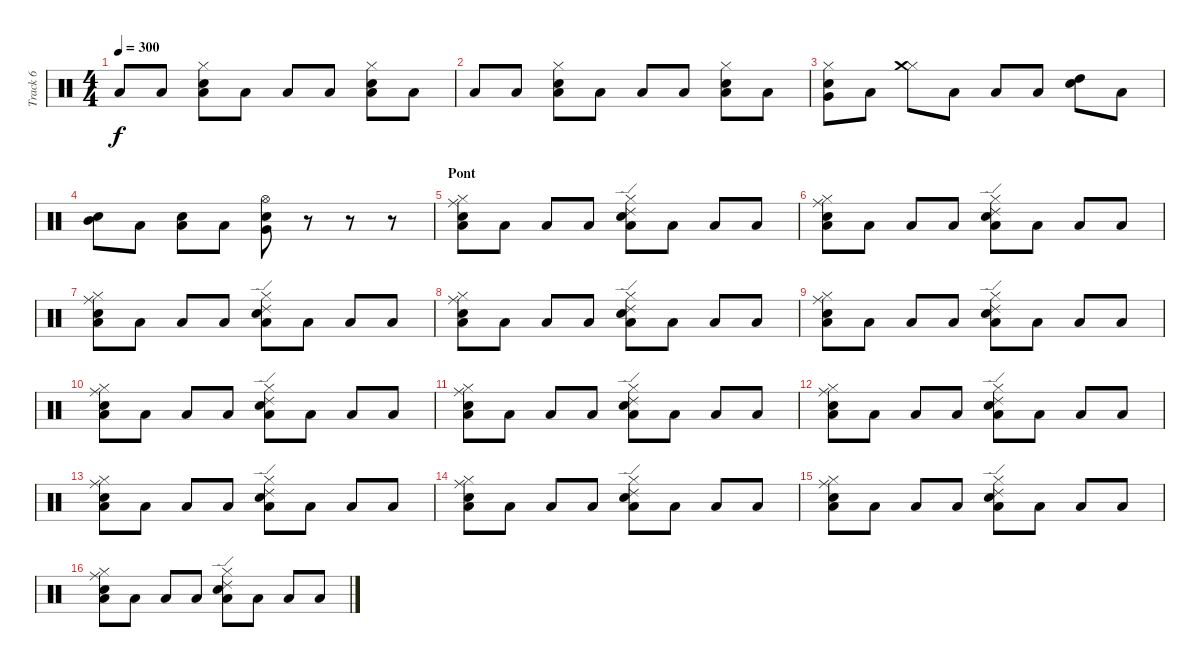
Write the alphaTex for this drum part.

\track ("Track 6" "Track 6") {instrument percussion}
\staff {score}
\articulation defaults
\ts (4 4)
\tempo 300
\clef neutral
\ks c "Low Floor Tom (hit)".8{dy f} "Low Floor Tom (hit)".8
("Electric Snare (hit)" "Low Tom (hit)" "Hi-Hat (closed)").8 "Low Floor Tom (hit)".8 "Low Floor Tom (hit)".8 "Low Floor Tom (hit)".8 ("Electric Snare (hit)" "Low Tom (hit)" "Hi-Hat (closed)").8 "Low Floor Tom (hit)".8 |
"Low Floor Tom (hit)".8 "Low Floor Tom (hit)".8 ("Electric Snare (hit)" "Low Tom (hit)" "Hi-Hat (closed)").8 "Low Floor Tom (hit)".8 "Low Floor Tom (hit)".8 "Low Floor Tom (hit)".8 ("Electric Snare (hit)" "Low Tom (hit)" "Hi-Hat (closed)").8 "Low Floor Tom (hit)".8 |
("Snare (hit) 2" "Very Low Tom (hit)" "Hi-Hat (closed)").8 "Low Floor Tom (hit)".8 ("Hi-Hat (closed)" "Crash medium (hit)").8 "Low Floor Tom (hit)".8 "Low Floor Tom (hit)".8 "Low Floor Tom (hit)".8 ("High Tom (hit)" "Snare (hit) 2").8 "Low Floor Tom (hit)".8 |
("Mid Tom (hit)" "Snare (hit) 2").8 "Low Floor Tom (hit)".8 ("Low Tom (hit)" "Snare (hit) 2").8 "Low Floor Tom (hit)".8 ("Very Low Tom (hit)" "Snare (hit) 2" "Hi-Hat (open)").8 r.8 r.8 r.8 |
\section ("" "Pont")
("Snare (hit) 2" "Low Tom (hit)" "Hi-Hat (closed)" "Ride (middle)").8 "Low Floor Tom (hit)".8 "Low Floor Tom (hit)".8 "Low Floor Tom (hit)".8 ("Electric Snare (hit)" "Low Tom (hit)" "Hi-Hat (closed)" "Ride (edge) 2").8 "Low Floor Tom (hit)".8 "Low Floor Tom (hit)".8 "Low Floor Tom (hit)".8 |
("Snare (hit) 2" "Low Tom (hit)" "Hi-Hat (closed)" "Ride (middle)").8 "Low Floor Tom (hit)".8 "Low Floor Tom (hit)".8 "Low Floor Tom (hit)".8 ("Electric Snare (hit)" "Low Tom (hit)" "Hi-Hat (closed)" "Ride (edge) 2").8 "Low Floor Tom (hit)".8 "Low Floor Tom (hit)".8 "Low Floor Tom (hit)".8 |
("Snare (hit) 2" "Low Tom (hit)" "Hi-Hat (closed)" "Ride (middle)").8 "Low Floor Tom (hit)".8 "Low Floor Tom (hit)".8 "Low Floor Tom (hit)".8 ("Electric Snare (hit)" "Low Tom (hit)" "Hi-Hat (closed)" "Ride (edge) 2").8 "Low Floor Tom (hit)".8 "Low Floor Tom (hit)".8 "Low Floor Tom (hit)".8 |
("Snare (hit) 2" "Low Tom (hit)" "Hi-Hat (closed)" "Ride (middle)").8 "Low Floor Tom (hit)".8 "Low Floor Tom (hit)".8 "Low Floor Tom (hit)".8 ("Electric Snare (hit)" "Low Tom (hit)" "Hi-Hat (closed)" "Ride (edge) 2").8 "Low Floor Tom (hit)".8 "Low Floor Tom (hit)".8 "Low Floor Tom (hit)".8 |
("Snare (hit) 2" "Low Tom (hit)" "Hi-Hat (closed)" "Ride (middle)").8 "Low Floor Tom (hit)".8 "Low Floor Tom (hit)".8 "Low Floor Tom (hit)".8 ("Electric Snare (hit)" "Low Tom (hit)" "Hi-Hat (closed)" "Ride (edge) 2").8 "Low Floor Tom (hit)".8 "Low Floor Tom (hit)".8 "Low Floor Tom (hit)".8 |
("Snare (hit) 2" "Low Tom (hit)" "Hi-Hat (closed)" "Ride (middle)").8 "Low Floor Tom (hit)".8 "Low Floor Tom (hit)".8 "Low Floor Tom (hit)".8 ("Electric Snare (hit)" "Low Tom (hit)" "Hi-Hat (closed)" "Ride (edge) 2").8 "Low Floor Tom (hit)".8 "Low Floor Tom (hit)".8 "Low Floor Tom (hit)".8 |
("Snare (hit) 2" "Low Tom (hit)" "Hi-Hat (closed)" "Ride (middle)").8 "Low Floor Tom (hit)".8 "Low Floor Tom (hit)".8 "Low Floor Tom (hit)".8 ("Electric Snare (hit)" "Low Tom (hit)" "Hi-Hat (closed)" "Ride (edge) 2").8 "Low Floor Tom (hit)".8 "Low Floor Tom (hit)".8 "Low Floor Tom (hit)".8 |
("Snare (hit) 2" "Low Tom (hit)" "Hi-Hat (closed)" "Ride (middle)").8 "Low Floor Tom (hit)".8 "Low Floor Tom (hit)".8 "Low Floor Tom (hit)".8 ("Electric Snare (hit)" "Low Tom (hit)" "Hi-Hat (closed)" "Ride (edge) 2").8 "Low Floor Tom (hit)".8 "Low Floor Tom (hit)".8 "Low Floor Tom (hit)".8 |
("Snare (hit) 2" "Low Tom (hit)" "Hi-Hat (closed)" "Ride (middle)").8 "Low Floor Tom (hit)".8 "Low Floor Tom (hit)".8 "Low Floor Tom (hit)".8 ("Electric Snare (hit)" "Low Tom (hit)" "Hi-Hat (closed)" "Ride (edge) 2").8 "Low Floor Tom (hit)".8 "Low Floor Tom (hit)".8 "Low Floor Tom (hit)".8 |
("Snare (hit) 2" "Low Tom (hit)" "Hi-Hat (closed)" "Ride (middle)").8 "Low Floor Tom (hit)".8 "Low Floor Tom (hit)".8 "Low Floor Tom (hit)".8 ("Electric Snare (hit)" "Low Tom (hit)" "Hi-Hat (closed)" "Ride (edge) 2").8 "Low Floor Tom (hit)".8 "Low Floor Tom (hit)".8 "Low Floor Tom (hit)".8 |
("Snare (hit) 2" "Low Tom (hit)" "Hi-Hat (closed)" "Ride (middle)").8 "Low Floor Tom (hit)".8 "Low Floor Tom (hit)".8 "Low Floor Tom (hit)".8 ("Electric Snare (hit)" "Low Tom (hit)" "Hi-Hat (closed)" "Ride (edge) 2").8 "Low Floor Tom (hit)".8 "Low Floor Tom (hit)".8 "Low Floor Tom (hit)".8 |
("Snare (hit) 2" "Low Tom (hit)" "Hi-Hat (closed)" "Ride (middle)").8 "Low Floor Tom (hit)".8 "Low Floor Tom (hit)".8 "Low Floor Tom (hit)".8 ("Electric Snare (hit)" "Low Tom (hit)" "Hi-Hat (closed)" "Ride (edge) 2").8 "Low Floor Tom (hit)".8 "Low Floor Tom (hit)".8 "Low Floor Tom (hit)".8
